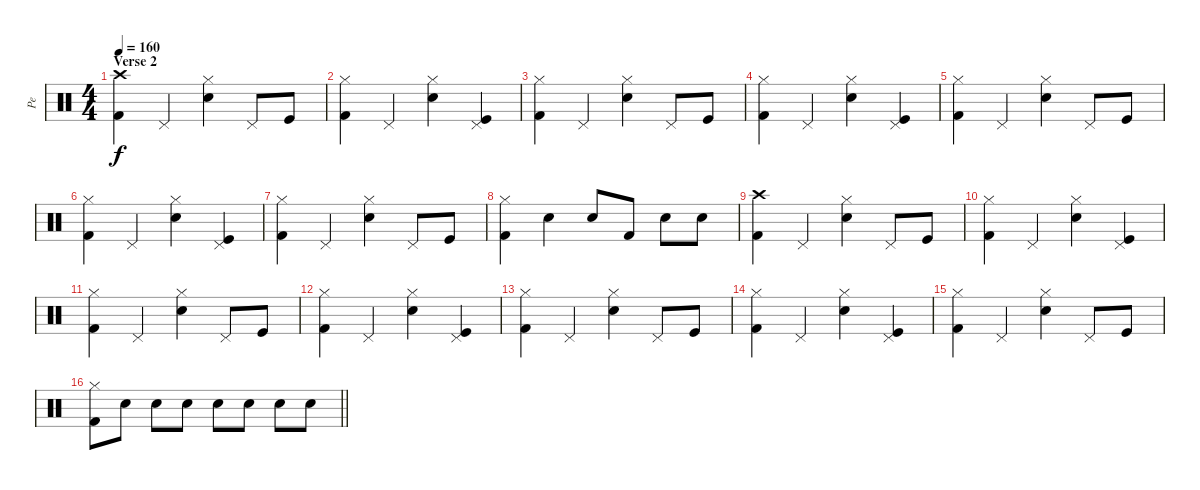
\track ("Pe" "Pe") {instrument percussion}
\staff {score}
\articulation defaults
\ts (4 4)
\section ("" "Verse 2")
\tempo 160
\clef neutral
\ks c
("Kick (hit) 2" "Crash high (hit)").4{dy f} "Pedal Hi-Hat (hit)".4 ("Electric Snare (hit)" "Hi-Hat (closed)").4 "Pedal Hi-Hat (hit)".8 "Kick (hit)".8 |
("Kick (hit) 2" "Hi-Hat (closed)").4 "Pedal Hi-Hat (hit)".4 ("Electric Snare (hit)" "Hi-Hat (closed)").4 ("Kick (hit)" "Pedal Hi-Hat (hit)").4 |
("Kick (hit) 2" "Hi-Hat (closed)").4 "Pedal Hi-Hat (hit)".4 ("Electric Snare (hit)" "Hi-Hat (closed)").4 "Pedal Hi-Hat (hit)".8 "Kick (hit)".8 |
("Kick (hit) 2" "Hi-Hat (closed)").4 "Pedal Hi-Hat (hit)".4 ("Electric Snare (hit)" "Hi-Hat (closed)").4 ("Kick (hit)" "Pedal Hi-Hat (hit)").4 |
("Kick (hit) 2" "Hi-Hat (closed)").4 "Pedal Hi-Hat (hit)".4 ("Electric Snare (hit)" "Hi-Hat (closed)").4 "Pedal Hi-Hat (hit)".8 "Kick (hit)".8 |
("Kick (hit) 2" "Hi-Hat (closed)").4 "Pedal Hi-Hat (hit)".4 ("Electric Snare (hit)" "Hi-Hat (closed)").4 ("Kick (hit)" "Pedal Hi-Hat (hit)").4 |
("Kick (hit) 2" "Hi-Hat (closed)").4 "Pedal Hi-Hat (hit)".4 ("Electric Snare (hit)" "Hi-Hat (closed)").4 "Pedal Hi-Hat (hit)".8 "Kick (hit)".8 |
("Kick (hit) 2" "Hi-Hat (closed)").4 "Electric Snare (hit)".4 "Electric Snare (hit)".8 "Kick (hit) 2".8 "Electric Snare (hit)".8 "Electric Snare (hit)".8 |
("Kick (hit) 2" "Crash high (hit)").4 "Pedal Hi-Hat (hit)".4 ("Electric Snare (hit)" "Hi-Hat (closed)").4 "Pedal Hi-Hat (hit)".8 "Kick (hit)".8 |
("Kick (hit) 2" "Hi-Hat (closed)").4 "Pedal Hi-Hat (hit)".4 ("Electric Snare (hit)" "Hi-Hat (closed)").4 ("Kick (hit)" "Pedal Hi-Hat (hit)").4 |
("Kick (hit) 2" "Hi-Hat (closed)").4 "Pedal Hi-Hat (hit)".4 ("Electric Snare (hit)" "Hi-Hat (closed)").4 "Pedal Hi-Hat (hit)".8 "Kick (hit)".8 |
("Kick (hit) 2" "Hi-Hat (closed)").4 "Pedal Hi-Hat (hit)".4 ("Electric Snare (hit)" "Hi-Hat (closed)").4 ("Kick (hit)" "Pedal Hi-Hat (hit)").4 |
("Kick (hit) 2" "Hi-Hat (closed)").4 "Pedal Hi-Hat (hit)".4 ("Electric Snare (hit)" "Hi-Hat (closed)").4 "Pedal Hi-Hat (hit)".8 "Kick (hit)".8 |
("Kick (hit) 2" "Hi-Hat (closed)").4 "Pedal Hi-Hat (hit)".4 ("Electric Snare (hit)" "Hi-Hat (closed)").4 ("Kick (hit)" "Pedal Hi-Hat (hit)").4 |
("Kick (hit) 2" "Hi-Hat (closed)").4 "Pedal Hi-Hat (hit)".4 ("Electric Snare (hit)" "Hi-Hat (closed)").4 "Pedal Hi-Hat (hit)".8 "Kick (hit)".8 |
\barLineRight lightlight
("Kick (hit) 2" "Hi-Hat (closed)").8 "Electric Snare (hit)".8 "Electric Snare (hit)".8 "Electric Snare (hit)".8 "Electric Snare (hit)".8 "Electric Snare (hit)".8 "Electric Snare (hit)".8 "Electric Snare (hit)".8
